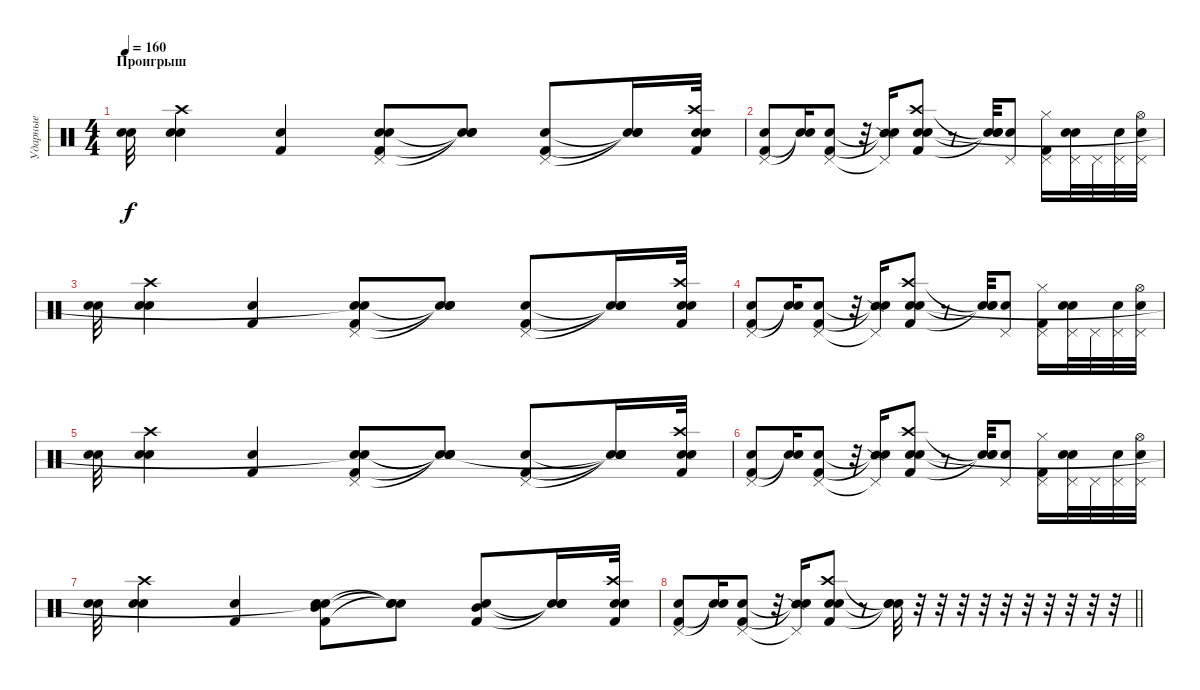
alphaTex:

\track ("Ударные" "Ударные") {instrument percussion}
\staff {score}
\articulation defaults
\ts (4 4)
\section ("" "Проигрыш")
\tempo 160
\clef neutral
\ks c
("Snare (hit) 2" "Electric Snare (hit)").32{dy f} ("Snare (hit) 2" "Electric Snare (hit)" "Crash high (hit)").4 ("Electric Snare (hit)" "Kick (hit) 2").4 ("Pedal Hi-Hat (hit)" "Kick (hit) 2" "Electric Snare (hit)" "Snare (hit)").8 ("Snare (hit)"{t} "Snare (hit)"{t} "Snare (hit)"{t}).8 ("Pedal Hi-Hat (hit)" "Kick (hit) 2" "Electric Snare (hit)").8 ("Snare (hit)"{t} "Snare (hit)"{t} "Snare (hit)"{t}).16 ("Kick (hit) 2" "Electric Snare (hit)" "Crash high (hit)" "Snare (hit) 2").32 |
("Kick (hit) 2" "Pedal Hi-Hat (hit)" "Snare (hit) 2").8 ("Snare (hit)"{t} "Snare (hit)"{t}).16 ("Kick (hit) 2" "Pedal Hi-Hat (hit)" "Electric Snare (hit)").8 r.32 ("Snare (side stick) 2"{t} "Pedal Hi-Hat (hit)"{t} "Snare (hit)"{t}).16 ("Kick (hit) 2" "Crash high (hit)" "Electric Snare (hit)" "Snare (hit) 2").8 r.8 ("Snare (hit)"{t} "Snare (hit)"{t} "Snare (hit)"{t}).32 ("Electric Snare (hit)" "Pedal Hi-Hat (hit)").8 ("Hi-Hat (closed)" "Pedal Hi-Hat (hit)" "Kick (hit) 2").16 ("Electric Snare (hit)" "Pedal Hi-Hat (hit)" "Snare (hit) 2").32 "Pedal Hi-Hat (hit)".32 ("Electric Snare (hit)" "Pedal Hi-Hat (hit)").32 ("Snare (hit) 2" "Pedal Hi-Hat (hit)" "Hi-Hat (open)").32 |
("Snare (hit) 2" "Electric Snare (hit)").32 ("Snare (hit) 2" "Electric Snare (hit)" "Crash high (hit)").4 ("Electric Snare (hit)" "Kick (hit) 2").4 ("Pedal Hi-Hat (hit)" "Kick (hit) 2" "Electric Snare (hit)" "Snare (hit)"{t}).8 ("Snare (hit)"{t} "Snare (hit)"{t} "Snare (hit)"{t}).8 ("Pedal Hi-Hat (hit)" "Kick (hit) 2" "Electric Snare (hit)").8 ("Snare (hit)"{t} "Snare (hit)"{t} "Snare (hit)"{t}).16 ("Kick (hit) 2" "Electric Snare (hit)" "Crash high (hit)" "Snare (hit) 2").32 |
("Kick (hit) 2" "Pedal Hi-Hat (hit)" "Snare (hit) 2").8 ("Snare (hit)"{t} "Snare (hit)"{t}).16 ("Kick (hit) 2" "Pedal Hi-Hat (hit)" "Electric Snare (hit)").8 r.32 ("Snare (side stick) 2"{t} "Pedal Hi-Hat (hit)"{t} "Snare (hit)"{t}).16 ("Kick (hit) 2" "Crash high (hit)" "Electric Snare (hit)" "Snare (hit) 2").8 r.8 ("Snare (hit)"{t} "Snare (hit)"{t} "Snare (hit)"{t}).32 ("Electric Snare (hit)" "Pedal Hi-Hat (hit)").8 ("Hi-Hat (closed)" "Pedal Hi-Hat (hit)" "Kick (hit) 2").16 ("Electric Snare (hit)" "Pedal Hi-Hat (hit)" "Snare (hit) 2").32 "Pedal Hi-Hat (hit)".32 ("Electric Snare (hit)" "Pedal Hi-Hat (hit)").32 ("Snare (hit) 2" "Pedal Hi-Hat (hit)" "Hi-Hat (open)").32 |
("Snare (hit) 2" "Electric Snare (hit)").32 ("Snare (hit) 2" "Electric Snare (hit)" "Crash high (hit)").4 ("Electric Snare (hit)" "Kick (hit) 2").4 ("Pedal Hi-Hat (hit)" "Kick (hit) 2" "Electric Snare (hit)" "Snare (hit)"{t}).8 ("Snare (hit)"{t} "Snare (hit)"{t} "Snare (hit)"{t} "Snare (hit)"{t}).8 ("Pedal Hi-Hat (hit)" "Kick (hit) 2" "Electric Snare (hit)").8 ("Snare (hit)"{t} "Snare (hit)"{t} "Snare (hit)"{t} "Snare (hit)"{t}).16 ("Kick (hit) 2" "Electric Snare (hit)" "Crash high (hit)" "Snare (hit) 2").32 |
("Kick (hit) 2" "Pedal Hi-Hat (hit)" "Snare (hit) 2").8 ("Snare (hit)"{t} "Snare (hit)"{t}).16 ("Kick (hit) 2" "Pedal Hi-Hat (hit)" "Electric Snare (hit)").8 r.32 ("Snare (side stick) 2"{t} "Pedal Hi-Hat (hit)"{t} "Snare (hit)"{t}).16 ("Kick (hit) 2" "Crash high (hit)" "Electric Snare (hit)" "Snare (hit) 2").8 r.8 ("Snare (hit)"{t} "Snare (hit)"{t} "Snare (hit)"{t}).32 ("Electric Snare (hit)" "Pedal Hi-Hat (hit)").8 ("Hi-Hat (closed)" "Pedal Hi-Hat (hit)" "Kick (hit) 2").16 ("Electric Snare (hit)" "Pedal Hi-Hat (hit)" "Snare (hit) 2").32 "Pedal Hi-Hat (hit)".32 ("Electric Snare (hit)" "Pedal Hi-Hat (hit)").32 ("Snare (hit) 2" "Pedal Hi-Hat (hit)" "Hi-Hat (open)").32 |
("Snare (hit) 2" "Electric Snare (hit)").32 ("Snare (hit) 2" "Electric Snare (hit)" "Crash high (hit)").4 ("Electric Snare (hit)" "Kick (hit) 2").4 ("Mid Tom (hit)" "Kick (hit) 2" "Electric Snare (hit)" "Snare (hit)"{t}).8 ("Snare (hit)"{t} "Snare (hit)"{t} "Snare (hit)"{t}).8 ("Mid Tom (hit)" "Kick (hit) 2" "Electric Snare (hit)").8 ("Snare (hit)"{t} "Snare (hit)"{t} "Snare (hit)"{t}).16 ("Kick (hit) 2" "Electric Snare (hit)" "Crash high (hit)" "Snare (hit) 2").32 |
\barLineRight lightlight
("Kick (hit) 2" "Pedal Hi-Hat (hit)" "Snare (hit) 2").8 ("Snare (hit)"{t} "Snare (hit)"{t}).16 ("Kick (hit) 2" "Pedal Hi-Hat (hit)" "Electric Snare (hit)").8 r.32 ("Snare (side stick) 2"{t} "Pedal Hi-Hat (hit)"{t} "Snare (hit)"{t}).16 ("Kick (hit) 2" "Crash high (hit)" "Electric Snare (hit)" "Snare (hit) 2").8 r.8 ("Snare (hit)"{t} "Snare (hit)"{t} "Snare (hit)"{t}).32 r.32 r.32 r.32 r.32 r.32 r.32 r.32 r.32 r.32 r.32
